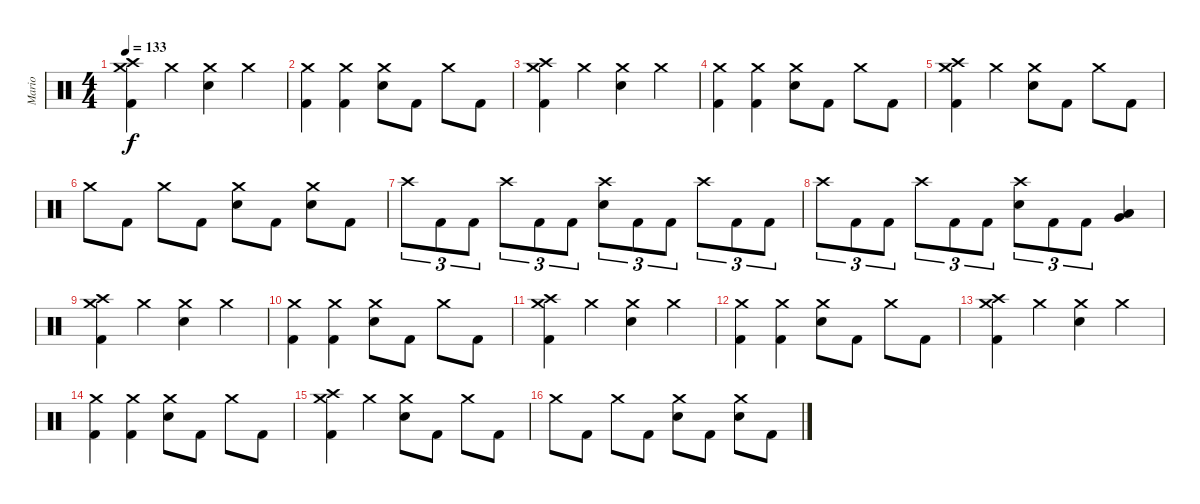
\track ("Mario" "Mario") {instrument percussion}
\staff {score}
\articulation defaults
\ts (4 4)
\tempo 133
\clef neutral
\ks c
("Crash medium (hit)" "Crash high (hit)" "Kick (hit) 2").4{dy f} "Crash medium (hit)".4 ("Crash medium (hit)" "Electric Snare (hit)").4 "Crash medium (hit)".4 |
("Crash medium (hit)" "Kick (hit) 2").4 ("Crash medium (hit)" "Kick (hit) 2").4 ("Crash medium (hit)" "Electric Snare (hit)").8 "Kick (hit) 2".8 "Crash medium (hit)".8 "Kick (hit) 2".8 |
("Crash medium (hit)" "Crash high (hit)" "Kick (hit) 2").4 "Crash medium (hit)".4 ("Crash medium (hit)" "Electric Snare (hit)").4 "Crash medium (hit)".4 |
("Crash medium (hit)" "Kick (hit) 2").4 ("Crash medium (hit)" "Kick (hit) 2").4 ("Crash medium (hit)" "Electric Snare (hit)").8 "Kick (hit) 2".8 "Crash medium (hit)".8 "Kick (hit) 2".8 |
("Crash medium (hit)" "Crash high (hit)" "Kick (hit) 2").4 "Crash medium (hit)".4 ("Crash medium (hit)" "Electric Snare (hit)").8 "Kick (hit) 2".8 "Crash medium (hit)".8 "Kick (hit) 2".8 |
"Crash medium (hit)".8 "Kick (hit) 2".8 "Crash medium (hit)".8 "Kick (hit) 2".8 ("Crash medium (hit)" "Electric Snare (hit)").8 "Kick (hit) 2".8 ("Crash medium (hit)" "Electric Snare (hit)").8 "Kick (hit) 2".8 |
"Crash high (hit)".8{tu (3 2)} "Kick (hit) 2".8{tu (3 2)} "Kick (hit) 2".8{tu (3 2)} "Crash high (hit)".8{tu (3 2)} "Kick (hit) 2".8{tu (3 2)} "Kick (hit) 2".8{tu (3 2)} ("Crash high (hit)" "Electric Snare (hit)").8{tu (3 2)} "Kick (hit) 2".8{tu (3 2)} "Kick (hit) 2".8{tu (3 2)} "Crash high (hit)".8{tu (3 2)} "Kick (hit) 2".8{tu (3 2)} "Kick (hit) 2".8{tu (3 2)} |
"Crash high (hit)".8{tu (3 2)} "Kick (hit) 2".8{tu (3 2)} "Kick (hit) 2".8{tu (3 2)} "Crash high (hit)".8{tu (3 2)} "Kick (hit) 2".8{tu (3 2)} "Kick (hit) 2".8{tu (3 2)} ("Crash high (hit)" "Electric Snare (hit)").8{tu (3 2)} "Kick (hit) 2".8{tu (3 2)} "Kick (hit) 2".8{tu (3 2)} ("Low Tom (hit)" "Very Low Tom (hit)").4 |
("Crash medium (hit)" "Crash high (hit)" "Kick (hit) 2").4 "Crash medium (hit)".4 ("Crash medium (hit)" "Electric Snare (hit)").4 "Crash medium (hit)".4 |
("Crash medium (hit)" "Kick (hit) 2").4 ("Crash medium (hit)" "Kick (hit) 2").4 ("Crash medium (hit)" "Electric Snare (hit)").8 "Kick (hit) 2".8 "Crash medium (hit)".8 "Kick (hit) 2".8 |
("Crash medium (hit)" "Crash high (hit)" "Kick (hit) 2").4 "Crash medium (hit)".4 ("Crash medium (hit)" "Electric Snare (hit)").4 "Crash medium (hit)".4 |
("Crash medium (hit)" "Kick (hit) 2").4 ("Crash medium (hit)" "Kick (hit) 2").4 ("Crash medium (hit)" "Electric Snare (hit)").8 "Kick (hit) 2".8 "Crash medium (hit)".8 "Kick (hit) 2".8 |
("Crash medium (hit)" "Crash high (hit)" "Kick (hit) 2").4 "Crash medium (hit)".4 ("Crash medium (hit)" "Electric Snare (hit)").4 "Crash medium (hit)".4 |
("Crash medium (hit)" "Kick (hit) 2").4 ("Crash medium (hit)" "Kick (hit) 2").4 ("Crash medium (hit)" "Electric Snare (hit)").8 "Kick (hit) 2".8 "Crash medium (hit)".8 "Kick (hit) 2".8 |
("Crash medium (hit)" "Crash high (hit)" "Kick (hit) 2").4 "Crash medium (hit)".4 ("Crash medium (hit)" "Electric Snare (hit)").8 "Kick (hit) 2".8 "Crash medium (hit)".8 "Kick (hit) 2".8 |
"Crash medium (hit)".8 "Kick (hit) 2".8 "Crash medium (hit)".8 "Kick (hit) 2".8 ("Crash medium (hit)" "Electric Snare (hit)").8 "Kick (hit) 2".8 ("Crash medium (hit)" "Electric Snare (hit)").8 "Kick (hit) 2".8
